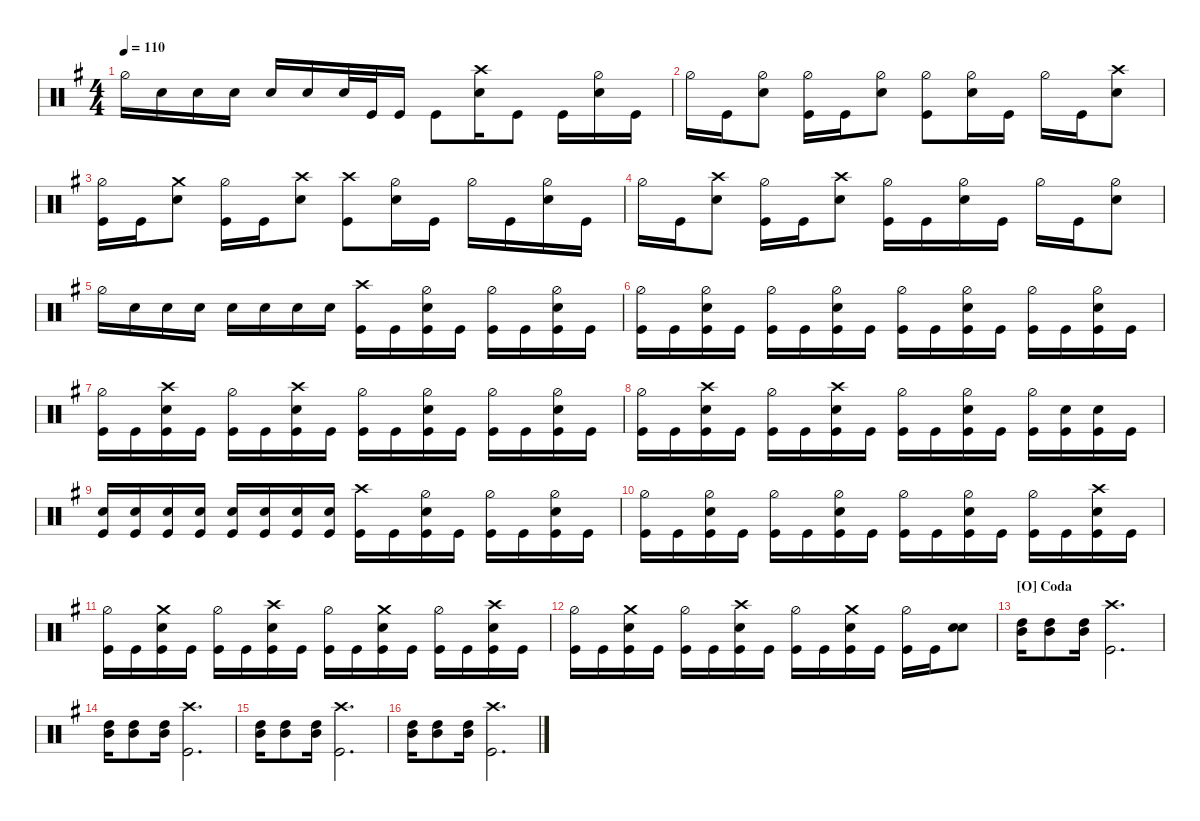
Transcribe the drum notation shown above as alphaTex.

\defaultSystemsLayout 4
\hideDynamics
\bracketExtendMode nobrackets
\otherSystemsTrackNameOrientation horizontal
\track ("Drums" " ") {instrument percussion}
\staff
\articulation defaults
\ts (4 4)
\tempo 110
\clef neutral
\ks eminor "Hi-Hat (half)"{acc forcenatural}.16{dy f} "Snare (hit) 2"{acc forcenatural}.16 "Snare (hit) 2"{acc forcenatural}.16 "Snare (hit) 2"{acc forcenatural}.16 "Snare (hit) 2"{acc forcenatural}.16 "Snare (hit) 2"{acc forcenatural}.16 "Snare (hit) 2"{acc forcenatural}.32 "Kick (hit)"{acc forcenatural}.32 "Kick (hit)"{acc forcenatural}.16 "Kick (hit)"{acc forcenatural}.8
("Crash high (hit)"{acc forcenatural} "Snare (hit) 2"{acc forcenatural}).16 "Kick (hit)"{acc forcenatural}.8 "Kick (hit)"{acc forcenatural}.16 ("Snare (hit) 2"{acc forcenatural} "Hi-Hat (half)"{acc forcenatural}).16 "Kick (hit)"{acc forcenatural}.16 |
"Hi-Hat (half)"{acc forcenatural}.16{dy mf} "Kick (hit)"{acc forcenatural}.16 ("Snare (hit) 2"{acc forcenatural} "Hi-Hat (half)"{acc forcenatural}).8 ("Kick (hit)"{acc forcenatural} "Hi-Hat (half)"{acc forcenatural}).16 "Kick (hit)"{acc forcenatural}.16 ("Snare (hit) 2"{acc forcenatural} "Hi-Hat (half)"{acc forcenatural}).8 ("Kick (hit)"{acc forcenatural} "Hi-Hat (half)"{acc forcenatural}).8 ("Snare (hit) 2"{acc forcenatural} "Hi-Hat (half)"{acc forcenatural}).16 "Kick (hit)"{acc forcenatural}.16 "Hi-Hat (half)"{acc forcenatural}.16 "Kick (hit)"{acc forcenatural}.16 ("Snare (hit) 2"{acc forcenatural} "Crash high (hit)"{acc forcenatural}).8 |
("Hi-Hat (half)"{acc forcenatural} "Kick (hit)"{acc forcenatural}).16{dy f} "Kick (hit)"{acc forcenatural}.16 ("Snare (hit) 2"{acc forcenatural} "Crash medium (hit)"{acc forcenatural}).8 ("Hi-Hat (half)"{acc forcenatural} "Kick (hit)"{acc forcenatural}).16 "Kick (hit)"{acc forcenatural}.16 ("Snare (hit) 2"{acc forcenatural} "Crash high (hit)"{acc forcenatural}).8 ("Kick (hit)"{acc forcenatural} "Crash high (hit)"{acc forcenatural}).8 ("Snare (hit) 2"{acc forcenatural} "Hi-Hat (half)"{acc forcenatural}).16{dy mf} "Kick (hit)"{acc forcenatural}.16 "Hi-Hat (half)"{acc forcenatural}.16 "Kick (hit)"{acc forcenatural}.16 ("Snare (hit) 2"{acc forcenatural} "Hi-Hat (half)"{acc forcenatural}).16 "Kick (hit)"{acc forcenatural}.16 |
"Hi-Hat (half)"{acc forcenatural}.16 "Kick (hit)"{acc forcenatural}.16 ("Snare (hit) 2"{acc forcenatural} "Crash high (hit)"{acc forcenatural}).8 ("Kick (hit)"{acc forcenatural} "Hi-Hat (half)"{acc forcenatural}).16 "Kick (hit)"{acc forcenatural}.16 ("Snare (hit) 2"{acc forcenatural} "Crash high (hit)"{acc forcenatural}).8 ("Kick (hit)"{acc forcenatural} "Hi-Hat (half)"{acc forcenatural}).16 "Kick (hit)"{acc forcenatural}.16 ("Snare (hit) 2"{acc forcenatural} "Hi-Hat (half)"{acc forcenatural}).16 "Kick (hit)"{acc forcenatural}.16 "Hi-Hat (half)"{acc forcenatural}.16 "Kick (hit)"{acc forcenatural}.16 ("Snare (hit) 2"{acc forcenatural} "Hi-Hat (half)"{acc forcenatural}).8 |
"Hi-Hat (half)"{acc forcenatural}.16 "Snare (hit) 2"{acc forcenatural}.16 "Snare (hit) 2"{acc forcenatural}.16 "Snare (hit) 2"{acc forcenatural}.16 "Snare (hit) 2"{acc forcenatural}.16 "Snare (hit) 2"{acc forcenatural}.16 "Snare (hit) 2"{acc forcenatural}.16 "Snare (hit) 2"{acc forcenatural}.16 ("Kick (hit)"{acc forcenatural} "Crash high (hit)"{acc forcenatural}).16 "Kick (hit)"{acc forcenatural}.16 ("Hi-Hat (half)"{acc forcenatural} "Snare (hit) 2"{acc forcenatural} "Kick (hit)"{acc forcenatural}).16 "Kick (hit)"{acc forcenatural}.16 ("Hi-Hat (half)"{acc forcenatural} "Kick (hit)"{acc forcenatural}).16 "Kick (hit)"{acc forcenatural}.16 ("Hi-Hat (half)"{acc forcenatural} "Snare (hit) 2"{acc forcenatural} "Kick (hit)"{acc forcenatural}).16 "Kick (hit)"{acc forcenatural}.16 |
("Hi-Hat (half)"{acc forcenatural} "Kick (hit)"{acc forcenatural}).16 "Kick (hit)"{acc forcenatural}.16 ("Hi-Hat (half)"{acc forcenatural} "Snare (hit) 2"{acc forcenatural} "Kick (hit)"{acc forcenatural}).16 "Kick (hit)"{acc forcenatural}.16 ("Hi-Hat (half)"{acc forcenatural} "Kick (hit)"{acc forcenatural}).16 "Kick (hit)"{acc forcenatural}.16 ("Hi-Hat (half)"{acc forcenatural} "Snare (hit) 2"{acc forcenatural} "Kick (hit)"{acc forcenatural}).16 "Kick (hit)"{acc forcenatural}.16 ("Hi-Hat (half)"{acc forcenatural} "Kick (hit)"{acc forcenatural}).16 "Kick (hit)"{acc forcenatural}.16 ("Hi-Hat (half)"{acc forcenatural} "Snare (hit) 2"{acc forcenatural} "Kick (hit)"{acc forcenatural}).16 "Kick (hit)"{acc forcenatural}.16 ("Hi-Hat (half)"{acc forcenatural} "Kick (hit)"{acc forcenatural}).16 "Kick (hit)"{acc forcenatural}.16 ("Hi-Hat (half)"{acc forcenatural} "Snare (hit) 2"{acc forcenatural} "Kick (hit)"{acc forcenatural}).16 "Kick (hit)"{acc forcenatural}.16 |
("Hi-Hat (half)"{acc forcenatural} "Kick (hit)"{acc forcenatural}).16 "Kick (hit)"{acc forcenatural}.16 ("Snare (hit) 2"{acc forcenatural} "Kick (hit)"{acc forcenatural} "Crash high (hit)"{acc forcenatural}).16 "Kick (hit)"{acc forcenatural}.16 ("Hi-Hat (half)"{acc forcenatural} "Kick (hit)"{acc forcenatural}).16 "Kick (hit)"{acc forcenatural}.16 ("Snare (hit) 2"{acc forcenatural} "Kick (hit)"{acc forcenatural} "Crash high (hit)"{acc forcenatural}).16 "Kick (hit)"{acc forcenatural}.16 ("Hi-Hat (half)"{acc forcenatural} "Kick (hit)"{acc forcenatural}).16 "Kick (hit)"{acc forcenatural}.16 ("Hi-Hat (half)"{acc forcenatural} "Snare (hit) 2"{acc forcenatural} "Kick (hit)"{acc forcenatural}).16 "Kick (hit)"{acc forcenatural}.16 ("Hi-Hat (half)"{acc forcenatural} "Kick (hit)"{acc forcenatural}).16 "Kick (hit)"{acc forcenatural}.16 ("Hi-Hat (half)"{acc forcenatural} "Snare (hit) 2"{acc forcenatural} "Kick (hit)"{acc forcenatural}).16 "Kick (hit)"{acc forcenatural}.16 |
("Hi-Hat (half)"{acc forcenatural} "Kick (hit)"{acc forcenatural}).16 "Kick (hit)"{acc forcenatural}.16 ("Snare (hit) 2"{acc forcenatural} "Kick (hit)"{acc forcenatural} "Crash high (hit)"{acc forcenatural}).16 "Kick (hit)"{acc forcenatural}.16 ("Hi-Hat (half)"{acc forcenatural} "Kick (hit)"{acc forcenatural}).16 "Kick (hit)"{acc forcenatural}.16 ("Snare (hit) 2"{acc forcenatural} "Kick (hit)"{acc forcenatural} "Crash high (hit)"{acc forcenatural}).16 "Kick (hit)"{acc forcenatural}.16 ("Hi-Hat (half)"{acc forcenatural} "Kick (hit)"{acc forcenatural}).16 "Kick (hit)"{acc forcenatural}.16 ("Hi-Hat (half)"{acc forcenatural} "Snare (hit) 2"{acc forcenatural} "Kick (hit)"{acc forcenatural}).16 "Kick (hit)"{acc forcenatural}.16 ("Hi-Hat (half)"{acc forcenatural} "Kick (hit)"{acc forcenatural}).16 ("Kick (hit)"{acc forcenatural} "Snare (hit) 2"{acc forcenatural}).16 ("Kick (hit)"{acc forcenatural} "Snare (hit) 2"{acc forcenatural}).16 "Kick (hit)"{acc forcenatural}.16 |
("Kick (hit)"{acc forcenatural} "Snare (hit) 2"{acc forcenatural}).16 ("Kick (hit)"{acc forcenatural} "Snare (hit) 2"{acc forcenatural}).16 ("Kick (hit)"{acc forcenatural} "Snare (hit) 2"{acc forcenatural}).16 ("Kick (hit)"{acc forcenatural} "Snare (hit) 2"{acc forcenatural}).16 ("Kick (hit)"{acc forcenatural} "Snare (hit) 2"{acc forcenatural}).16 ("Kick (hit)"{acc forcenatural} "Snare (hit) 2"{acc forcenatural}).16 ("Kick (hit)"{acc forcenatural} "Snare (hit) 2"{acc forcenatural}).16 ("Kick (hit)"{acc forcenatural} "Snare (hit) 2"{acc forcenatural}).16 ("Kick (hit)"{acc forcenatural} "Crash high (hit)"{acc forcenatural}).16 "Kick (hit)"{acc forcenatural}.16 ("Hi-Hat (half)"{acc forcenatural} "Snare (hit) 2"{acc forcenatural} "Kick (hit)"{acc forcenatural}).16 "Kick (hit)"{acc forcenatural}.16 ("Hi-Hat (half)"{acc forcenatural} "Kick (hit)"{acc forcenatural}).16 "Kick (hit)"{acc forcenatural}.16 ("Hi-Hat (half)"{acc forcenatural} "Snare (hit) 2"{acc forcenatural} "Kick (hit)"{acc forcenatural}).16 "Kick (hit)"{acc forcenatural}.16 |
("Hi-Hat (half)"{acc forcenatural} "Kick (hit)"{acc forcenatural}).16 "Kick (hit)"{acc forcenatural}.16 ("Hi-Hat (half)"{acc forcenatural} "Snare (hit) 2"{acc forcenatural} "Kick (hit)"{acc forcenatural}).16 "Kick (hit)"{acc forcenatural}.16 ("Hi-Hat (half)"{acc forcenatural} "Kick (hit)"{acc forcenatural}).16 "Kick (hit)"{acc forcenatural}.16 ("Hi-Hat (half)"{acc forcenatural} "Snare (hit) 2"{acc forcenatural} "Kick (hit)"{acc forcenatural}).16 "Kick (hit)"{acc forcenatural}.16 ("Hi-Hat (half)"{acc forcenatural} "Kick (hit)"{acc forcenatural}).16 "Kick (hit)"{acc forcenatural}.16 ("Hi-Hat (half)"{acc forcenatural} "Snare (hit) 2"{acc forcenatural} "Kick (hit)"{acc forcenatural}).16 "Kick (hit)"{acc forcenatural}.16 ("Hi-Hat (half)"{acc forcenatural} "Kick (hit)"{acc forcenatural}).16 "Kick (hit)"{acc forcenatural}.16 ("Snare (hit) 2"{acc forcenatural} "Kick (hit)"{acc forcenatural} "Crash high (hit)"{acc forcenatural}).16 "Kick (hit)"{acc forcenatural}.16 |
("Hi-Hat (half)"{acc forcenatural} "Kick (hit)"{acc forcenatural}).16 "Kick (hit)"{acc forcenatural}.16 ("Snare (hit) 2"{acc forcenatural} "Kick (hit)"{acc forcenatural} "Crash medium (hit)"{acc forcenatural}).16 "Kick (hit)"{acc forcenatural}.16 ("Hi-Hat (half)"{acc forcenatural} "Kick (hit)"{acc forcenatural}).16 "Kick (hit)"{acc forcenatural}.16 ("Snare (hit) 2"{acc forcenatural} "Kick (hit)"{acc forcenatural} "Crash high (hit)"{acc forcenatural}).16 "Kick (hit)"{acc forcenatural}.16 ("Hi-Hat (half)"{acc forcenatural} "Kick (hit)"{acc forcenatural}).16 "Kick (hit)"{acc forcenatural}.16 ("Snare (hit) 2"{acc forcenatural} "Kick (hit)"{acc forcenatural} "Crash medium (hit)"{acc forcenatural}).16 "Kick (hit)"{acc forcenatural}.16 ("Hi-Hat (half)"{acc forcenatural} "Kick (hit)"{acc forcenatural}).16 "Kick (hit)"{acc forcenatural}.16 ("Snare (hit) 2"{acc forcenatural} "Kick (hit)"{acc forcenatural} "Crash high (hit)"{acc forcenatural}).16 "Kick (hit)"{acc forcenatural}.16 |
("Hi-Hat (half)"{acc forcenatural} "Kick (hit)"{acc forcenatural}).16 "Kick (hit)"{acc forcenatural}.16 ("Snare (hit) 2"{acc forcenatural} "Kick (hit)"{acc forcenatural} "Crash medium (hit)"{acc forcenatural}).16 "Kick (hit)"{acc forcenatural}.16 ("Hi-Hat (half)"{acc forcenatural} "Kick (hit)"{acc forcenatural}).16 "Kick (hit)"{acc forcenatural}.16 ("Snare (hit) 2"{acc forcenatural} "Kick (hit)"{acc forcenatural} "Crash high (hit)"{acc forcenatural}).16 "Kick (hit)"{acc forcenatural}.16 ("Hi-Hat (half)"{acc forcenatural} "Kick (hit)"{acc forcenatural}).16 "Kick (hit)"{acc forcenatural}.16 ("Snare (hit) 2"{acc forcenatural} "Kick (hit)"{acc forcenatural} "Crash medium (hit)"{acc forcenatural}).16 "Kick (hit)"{acc forcenatural}.16 ("Hi-Hat (half)"{acc forcenatural} "Kick (hit)"{acc forcenatural}).16 "Kick (hit)"{acc forcenatural}.16 ("Snare (hit) 2"{acc forcenatural} "Snare (hit) 2"{acc forcenatural}).8 |
\section ("O" "Coda")
("High Tom (hit)"{acc forcenatural} "Mid Tom (hit)"{acc forcenatural}).16{dy ff} ("High Tom (hit)"{acc forcenatural} "Mid Tom (hit)"{acc forcenatural}).8 ("High Tom (hit)"{acc forcenatural} "Mid Tom (hit)"{acc forcenatural}).16 ("Kick (hit)"{acc forcenatural} "Crash high (hit)"{acc forcenatural}).2{d dy f} |
("High Tom (hit)"{acc forcenatural} "Mid Tom (hit)"{acc forcenatural}).16{dy ff} ("High Tom (hit)"{acc forcenatural} "Mid Tom (hit)"{acc forcenatural}).8 ("High Tom (hit)"{acc forcenatural} "Mid Tom (hit)"{acc forcenatural}).16 ("Kick (hit)"{acc forcenatural} "Crash high (hit)"{acc forcenatural}).2{d dy f} |
("High Tom (hit)"{acc forcenatural} "Mid Tom (hit)"{acc forcenatural}).16{dy ff} ("High Tom (hit)"{acc forcenatural} "Mid Tom (hit)"{acc forcenatural}).8 ("High Tom (hit)"{acc forcenatural} "Mid Tom (hit)"{acc forcenatural}).16 ("Kick (hit)"{acc forcenatural} "Crash high (hit)"{acc forcenatural}).2{d dy f} |
("High Tom (hit)"{acc forcenatural} "Mid Tom (hit)"{acc forcenatural}).16{dy ff} ("High Tom (hit)"{acc forcenatural} "Mid Tom (hit)"{acc forcenatural}).8 ("High Tom (hit)"{acc forcenatural} "Mid Tom (hit)"{acc forcenatural}).16 ("Kick (hit)"{acc forcenatural} "Crash high (hit)"{acc forcenatural}).2{d dy f}
